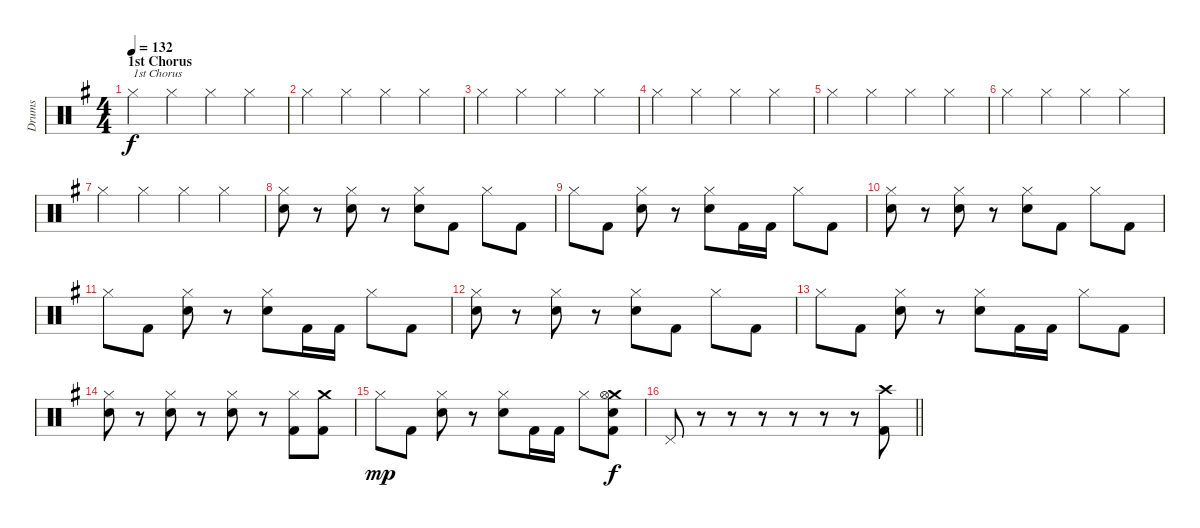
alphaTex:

\track ("Drums" "Drums") {instrument percussion}
\staff {score}
\articulation defaults
\ts (4 4)
\section ("" "1st Chorus")
\tempo 132
\clef neutral
\ks g "Hi-Hat (closed)".4{txt "1st Chorus" dy f} "Hi-Hat (closed)".4 "Hi-Hat (closed)".4 "Hi-Hat (closed)".4
|
"Hi-Hat (closed)".4 "Hi-Hat (closed)".4 "Hi-Hat (closed)".4 "Hi-Hat (closed)".4 |
"Hi-Hat (closed)".4 "Hi-Hat (closed)".4 "Hi-Hat (closed)".4 "Hi-Hat (closed)".4 |
"Hi-Hat (closed)".4 "Hi-Hat (closed)".4 "Hi-Hat (closed)".4 "Hi-Hat (closed)".4 |
"Hi-Hat (closed)".4 "Hi-Hat (closed)".4 "Hi-Hat (closed)".4 "Hi-Hat (closed)".4 |
"Hi-Hat (closed)".4 "Hi-Hat (closed)".4 "Hi-Hat (closed)".4 "Hi-Hat (closed)".4 |
"Hi-Hat (closed)".4 "Hi-Hat (closed)".4 "Hi-Hat (closed)".4 "Hi-Hat (closed)".4 |
("Hi-Hat (closed)" "Snare (hit) 2").8 r.8 ("Hi-Hat (closed)" "Snare (hit) 2").8 r.8 ("Hi-Hat (closed)" "Snare (hit) 2").8 "Kick (hit) 2".8 "Hi-Hat (closed)".8 "Kick (hit) 2".8 |
"Hi-Hat (closed)".8 "Kick (hit) 2".8 ("Hi-Hat (closed)" "Snare (hit) 2").8 r.8 ("Hi-Hat (closed)" "Snare (hit) 2").8 "Kick (hit) 2".16 "Kick (hit) 2".16 "Hi-Hat (closed)".8 "Kick (hit) 2".8 |
("Hi-Hat (closed)" "Snare (hit) 2").8 r.8 ("Hi-Hat (closed)" "Snare (hit) 2").8 r.8 ("Hi-Hat (closed)" "Snare (hit) 2").8 "Kick (hit) 2".8 "Hi-Hat (closed)".8 "Kick (hit) 2".8 |
"Hi-Hat (closed)".8 "Kick (hit) 2".8 ("Hi-Hat (closed)" "Snare (hit) 2").8 r.8 ("Hi-Hat (closed)" "Snare (hit) 2").8 "Kick (hit) 2".16 "Kick (hit) 2".16 "Hi-Hat (closed)".8 "Kick (hit) 2".8 |
("Hi-Hat (closed)" "Snare (hit) 2").8 r.8 ("Hi-Hat (closed)" "Snare (hit) 2").8 r.8 ("Hi-Hat (closed)" "Snare (hit) 2").8 "Kick (hit) 2".8 "Hi-Hat (closed)".8 "Kick (hit) 2".8 |
"Hi-Hat (closed)".8 "Kick (hit) 2".8 ("Hi-Hat (closed)" "Snare (hit) 2").8 r.8 ("Hi-Hat (closed)" "Snare (hit) 2").8 "Kick (hit) 2".16 "Kick (hit) 2".16 "Hi-Hat (closed)".8 "Kick (hit) 2".8 |
("Hi-Hat (closed)" "Snare (hit) 2").8 r.8 ("Hi-Hat (closed)" "Snare (hit) 2").8 r.8 ("Hi-Hat (closed)" "Snare (hit) 2").8 r.8 ("Hi-Hat (closed)" "Kick (hit) 2").8 ("Crash medium (hit)" "Kick (hit) 2").8 |
"Hi-Hat (closed)".8{dy mp} "Kick (hit) 2".8 ("Hi-Hat (closed)" "Snare (hit) 2").8 r.8 ("Hi-Hat (closed)" "Snare (hit) 2").8 "Kick (hit) 2".16 "Kick (hit) 2".16 "Hi-Hat (closed)".8 ("Crash medium (hit)" "Kick (hit) 2" "Snare (hit) 2" "Hi-Hat (open)").8{dy f} |
\barLineRight lightlight "Pedal Hi-Hat (hit)".8
r.8 r.8 r.8 r.8 r.8 r.8 ("Kick (hit) 2" "Crash high (hit)").8
